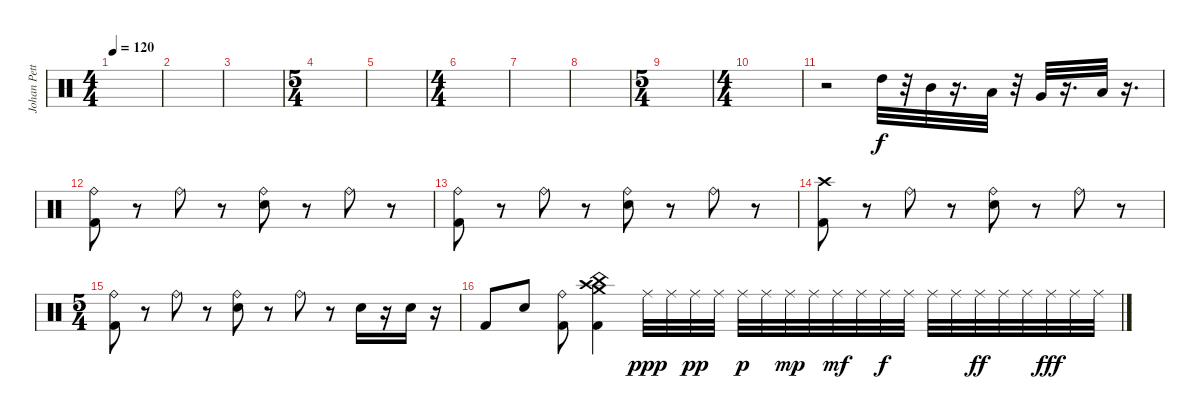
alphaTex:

\track ("Johan Petterson" "Johan Pett") {instrument percussion}
\staff {score}
\articulation defaults
\ts (4 4)
\tempo 120
\clef neutral
\ks c
|
|
|
\ts (5 4)
|
|
\ts (4 4)
|
|
|
\ts (5 4)
|
\ts (4 4)
|
r.2 "High Tom (hit)".32 r.32 "Mid Tom (hit)".32 r.16{d} "Low Tom (hit)".32 r.32 "Very Low Tom (hit)".32 r.16{d} "Low Floor Tom (hit)".32 r.16{d} |
("Ride (bell)" "Kick (hit) 2").8 r.8 "Ride (bell)".8 r.8 ("Ride (bell)" "Snare (hit) 2").8 r.8 "Ride (bell)".8 r.8 |
("Ride (bell)" "Kick (hit) 2").8 r.8 "Ride (bell)".8 r.8 ("Ride (bell)" "Snare (hit) 2").8 r.8 "Ride (bell)".8 r.8 |
("Crash high (hit)" "Kick (hit) 2").8 r.8 "Ride (bell)".8 r.8 ("Ride (bell)" "Snare (hit) 2").8 r.8 "Ride (bell)".8 r.8 |
\ts (5 4)
("Ride (bell)" "Kick (hit) 2").8 r.8 "Ride (bell)".8 r.8 ("Ride (bell)" "Snare (hit) 2").8 r.8 "Ride (bell)".8 r.8 "Snare (hit) 2".16 r.16 "Snare (hit) 2".16 r.16 |
"Kick (hit) 2".8 "Snare (hit) 2".8 ("Ride (bell)" "Kick (hit) 2").8 ("Crash high (hit)" "Crash medium (hit)" "China (hit)" "Kick (hit) 2").4 "Ride (middle)".32{dy ppp} "Ride (middle)".32 "Ride (middle)".32{dy pp} "Ride (middle)".32 "Ride (middle)".32{dy p} "Ride (middle)".32 "Ride (middle)".32{dy mp} "Ride (middle)".32 "Ride (middle)".32{dy mf} "Ride (middle)".32 "Ride (middle)".32{dy f} "Ride (middle)".32 "Ride (middle)".32 "Ride (middle)".32 "Ride (middle)".32{dy ff} "Ride (middle)".32 "Ride (middle)".32 "Ride (middle)".32{dy fff} "Ride (middle)".32 "Ride (middle)".32
